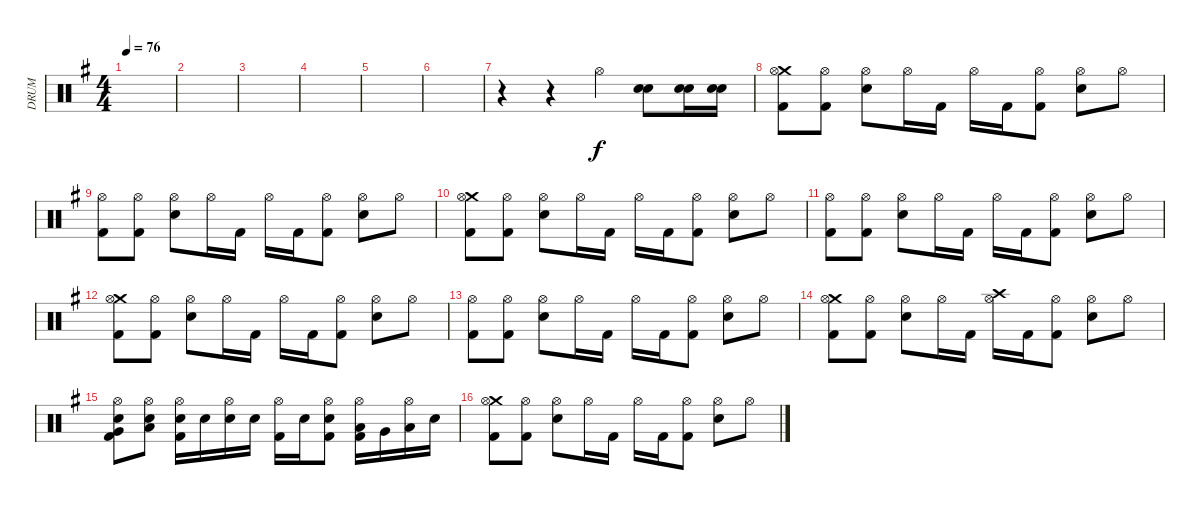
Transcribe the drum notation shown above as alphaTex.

\track ("DRUM" "DRUM") {instrument percussion}
\staff {score}
\articulation defaults
\ts (4 4)
\tempo 76
\clef neutral
\ks eminor
|
|
|
|
|
|
r.4 r.4 "Hi-Hat (open)".4 ("Electric Snare (hit)" "Electric Snare (hit)").8 ("Electric Snare (hit)" "Electric Snare (hit)").16 ("Electric Snare (hit)" "Electric Snare (hit)").16 |
("Crash medium (hit)" "Hi-Hat (open)" "Kick (hit) 2").8 ("Hi-Hat (open)" "Kick (hit) 2").8 ("Hi-Hat (open)" "Electric Snare (hit)").8 "Hi-Hat (open)".16 "Kick (hit) 2".16 "Hi-Hat (open)".16 "Kick (hit) 2".16 ("Hi-Hat (open)" "Kick (hit) 2").8 ("Hi-Hat (open)" "Electric Snare (hit)").8 "Hi-Hat (open)".8 |
("Hi-Hat (open)" "Kick (hit) 2").8 ("Hi-Hat (open)" "Kick (hit) 2").8 ("Hi-Hat (open)" "Electric Snare (hit)").8 "Hi-Hat (open)".16 "Kick (hit) 2".16 "Hi-Hat (open)".16 "Kick (hit) 2".16 ("Hi-Hat (open)" "Kick (hit) 2").8 ("Hi-Hat (open)" "Electric Snare (hit)").8 "Hi-Hat (open)".8 |
("Crash medium (hit)" "Hi-Hat (open)" "Kick (hit) 2").8 ("Hi-Hat (open)" "Kick (hit) 2").8 ("Hi-Hat (open)" "Electric Snare (hit)").8 "Hi-Hat (open)".16 "Kick (hit) 2".16 "Hi-Hat (open)".16 "Kick (hit) 2".16 ("Hi-Hat (open)" "Kick (hit) 2").8 ("Hi-Hat (open)" "Electric Snare (hit)").8 "Hi-Hat (open)".8 |
("Hi-Hat (open)" "Kick (hit) 2").8 ("Hi-Hat (open)" "Kick (hit) 2").8 ("Hi-Hat (open)" "Electric Snare (hit)").8 "Hi-Hat (open)".16 "Kick (hit) 2".16 "Hi-Hat (open)".16 "Kick (hit) 2".16 ("Hi-Hat (open)" "Kick (hit) 2").8 ("Hi-Hat (open)" "Electric Snare (hit)").8 "Hi-Hat (open)".8 |
("Crash medium (hit)" "Hi-Hat (open)" "Kick (hit) 2").8 ("Hi-Hat (open)" "Kick (hit) 2").8 ("Hi-Hat (open)" "Electric Snare (hit)").8 "Hi-Hat (open)".16 "Kick (hit) 2".16 "Hi-Hat (open)".16 "Kick (hit) 2".16 ("Hi-Hat (open)" "Kick (hit) 2").8 ("Hi-Hat (open)" "Electric Snare (hit)").8 "Hi-Hat (open)".8 |
("Hi-Hat (open)" "Kick (hit) 2").8 ("Hi-Hat (open)" "Kick (hit) 2").8 ("Hi-Hat (open)" "Electric Snare (hit)").8 "Hi-Hat (open)".16 "Kick (hit) 2".16 "Hi-Hat (open)".16 "Kick (hit) 2".16 ("Hi-Hat (open)" "Kick (hit) 2").8 ("Hi-Hat (open)" "Electric Snare (hit)").8 "Hi-Hat (open)".8 |
("Crash medium (hit)" "Hi-Hat (open)" "Kick (hit) 2").8 ("Hi-Hat (open)" "Kick (hit) 2").8 ("Hi-Hat (open)" "Electric Snare (hit)").8 "Hi-Hat (open)".16 "Kick (hit) 2".16 ("Crash high (hit)" "Hi-Hat (open)").16 "Kick (hit) 2".16 ("Hi-Hat (open)" "Kick (hit) 2").8 ("Hi-Hat (open)" "Electric Snare (hit)").8 "Hi-Hat (open)".8 |
("Hi-Hat (open)" "Electric Snare (hit)" "Very Low Tom (hit)" "Kick (hit) 2").8 ("Hi-Hat (open)" "Electric Snare (hit)" "Low Floor Tom (hit)").8 ("Hi-Hat (open)" "Electric Snare (hit)" "Kick (hit) 2").16 "Electric Snare (hit)".16 ("Hi-Hat (open)" "Electric Snare (hit)").16 "Electric Snare (hit)".16 ("Hi-Hat (open)" "Kick (hit) 2").16 "Electric Snare (hit)".16 ("Hi-Hat (open)" "Electric Snare (hit)" "Kick (hit) 2").8 ("Hi-Hat (open)" "Low Tom (hit)" "Kick (hit) 2").16 "Very Low Tom (hit)".16 ("Hi-Hat (open)" "Low Floor Tom (hit)").16 "Electric Snare (hit)".16 |
("Crash medium (hit)" "Hi-Hat (open)" "Kick (hit) 2").8 ("Hi-Hat (open)" "Kick (hit) 2").8 ("Hi-Hat (open)" "Electric Snare (hit)").8 "Hi-Hat (open)".16 "Kick (hit) 2".16 "Hi-Hat (open)".16 "Kick (hit) 2".16 ("Hi-Hat (open)" "Kick (hit) 2").8 ("Hi-Hat (open)" "Electric Snare (hit)").8 "Hi-Hat (open)".8
